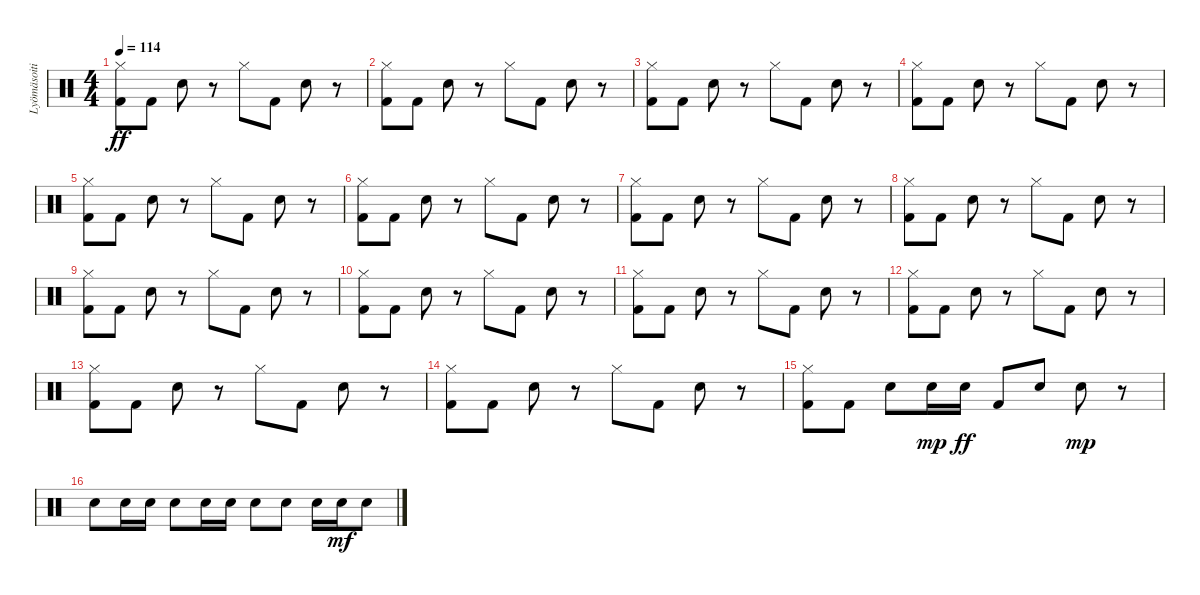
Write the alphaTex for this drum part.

\track ("Lyömäsoitin" "Lyömäsoiti") {instrument percussion}
\staff {score}
\articulation defaults
\ts (4 4)
\tempo 114
\clef neutral
\ks c
("Hi-Hat (closed)" "Kick (hit) 2").8{dy ff} "Kick (hit) 2".8 "Electric Snare (hit)".8 r.8 "Hi-Hat (closed)".8 "Kick (hit) 2".8 "Electric Snare (hit)".8 r.8 |
("Hi-Hat (closed)" "Kick (hit) 2").8 "Kick (hit) 2".8 "Electric Snare (hit)".8 r.8 "Hi-Hat (closed)".8 "Kick (hit) 2".8 "Electric Snare (hit)".8 r.8 |
("Hi-Hat (closed)" "Kick (hit) 2").8 "Kick (hit) 2".8 "Electric Snare (hit)".8 r.8 "Hi-Hat (closed)".8 "Kick (hit) 2".8 "Electric Snare (hit)".8 r.8 |
("Hi-Hat (closed)" "Kick (hit) 2").8 "Kick (hit) 2".8 "Electric Snare (hit)".8 r.8 "Hi-Hat (closed)".8 "Kick (hit) 2".8 "Electric Snare (hit)".8 r.8 |
("Hi-Hat (closed)" "Kick (hit) 2").8 "Kick (hit) 2".8 "Electric Snare (hit)".8 r.8 "Hi-Hat (closed)".8 "Kick (hit) 2".8 "Electric Snare (hit)".8 r.8 |
("Hi-Hat (closed)" "Kick (hit) 2").8 "Kick (hit) 2".8 "Electric Snare (hit)".8 r.8 "Hi-Hat (closed)".8 "Kick (hit) 2".8 "Electric Snare (hit)".8 r.8 |
("Hi-Hat (closed)" "Kick (hit) 2").8 "Kick (hit) 2".8 "Electric Snare (hit)".8 r.8 "Hi-Hat (closed)".8 "Kick (hit) 2".8 "Electric Snare (hit)".8 r.8 |
("Hi-Hat (closed)" "Kick (hit) 2").8 "Kick (hit) 2".8 "Electric Snare (hit)".8 r.8 "Hi-Hat (closed)".8 "Kick (hit) 2".8 "Electric Snare (hit)".8 r.8 |
("Hi-Hat (closed)" "Kick (hit) 2").8 "Kick (hit) 2".8 "Electric Snare (hit)".8 r.8 "Hi-Hat (closed)".8 "Kick (hit) 2".8 "Electric Snare (hit)".8 r.8 |
("Hi-Hat (closed)" "Kick (hit) 2").8 "Kick (hit) 2".8 "Electric Snare (hit)".8 r.8 "Hi-Hat (closed)".8 "Kick (hit) 2".8 "Electric Snare (hit)".8 r.8 |
("Hi-Hat (closed)" "Kick (hit) 2").8 "Kick (hit) 2".8 "Electric Snare (hit)".8 r.8 "Hi-Hat (closed)".8 "Kick (hit) 2".8 "Electric Snare (hit)".8 r.8 |
("Hi-Hat (closed)" "Kick (hit) 2").8 "Kick (hit) 2".8 "Electric Snare (hit)".8 r.8 "Hi-Hat (closed)".8 "Kick (hit) 2".8 "Electric Snare (hit)".8 r.8 |
("Hi-Hat (closed)" "Kick (hit) 2").8 "Kick (hit) 2".8 "Electric Snare (hit)".8 r.8 "Hi-Hat (closed)".8 "Kick (hit) 2".8 "Electric Snare (hit)".8 r.8 |
("Hi-Hat (closed)" "Kick (hit) 2").8 "Kick (hit) 2".8 "Electric Snare (hit)".8 r.8 "Hi-Hat (closed)".8 "Kick (hit) 2".8 "Electric Snare (hit)".8 r.8 |
("Hi-Hat (closed)" "Kick (hit) 2").8 "Kick (hit) 2".8 "Electric Snare (hit)".8 "Electric Snare (hit)".16{dy mp} "Electric Snare (hit)".16{dy ff} "Kick (hit) 2".8 "Electric Snare (hit)".8 "Electric Snare (hit)".8{dy mp} r.8 |
"Electric Snare (hit)".8 "Electric Snare (hit)".16 "Electric Snare (hit)".16 "Electric Snare (hit)".8 "Electric Snare (hit)".16 "Electric Snare (hit)".16 "Electric Snare (hit)".8 "Electric Snare (hit)".8 "Electric Snare (hit)".16 "Electric Snare (hit)".16{dy mf} "Electric Snare (hit)".8
